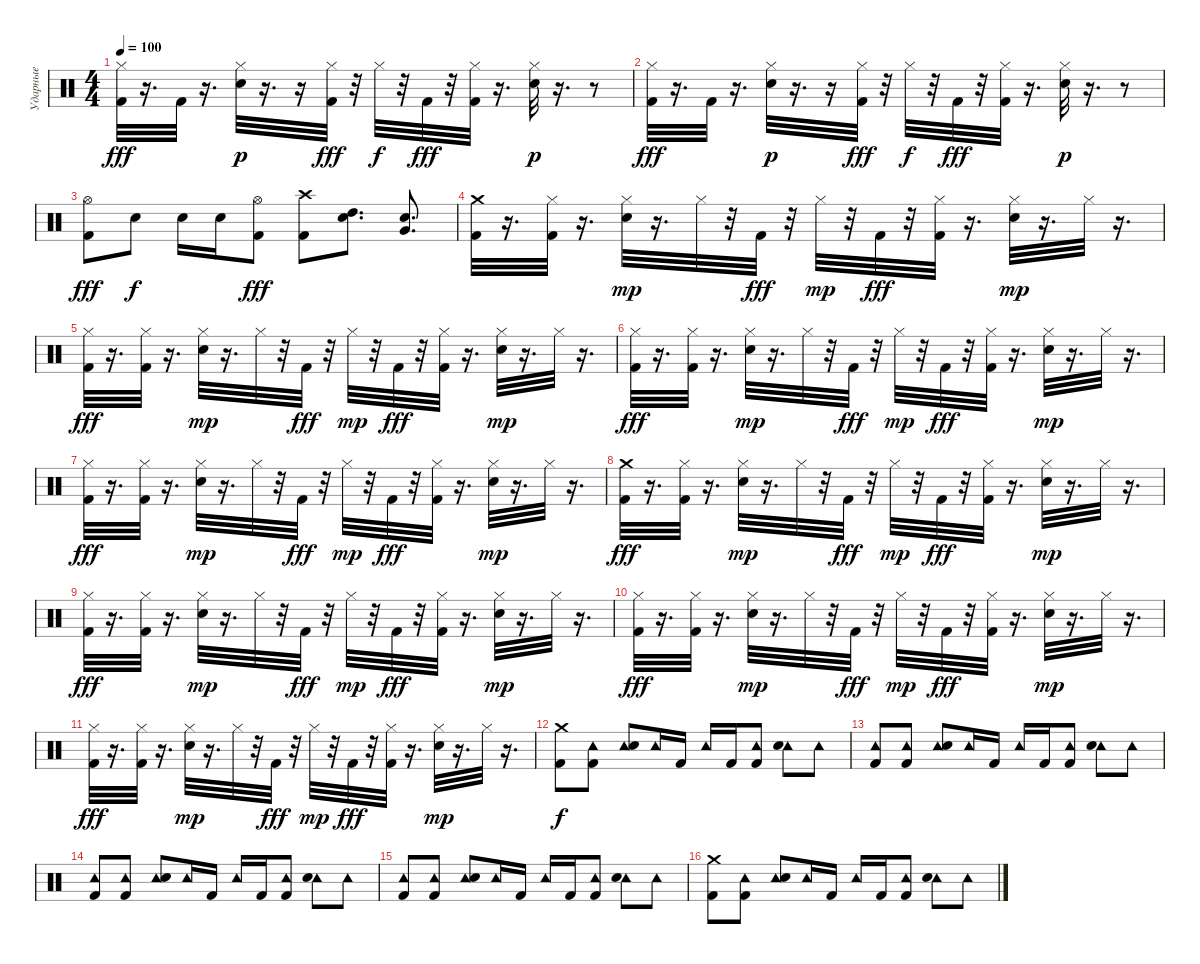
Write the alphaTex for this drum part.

\track ("Ударные" "Ударные") {instrument percussion}
\staff {score}
\articulation defaults
\ts (4 4)
\tempo 100
\clef neutral
\ks c
("Hi-Hat (closed)" "Kick (hit) 2").32{dy fff} r.16{d} "Kick (hit) 2".32 r.16{d} ("Hi-Hat (closed)" "Electric Snare (hit)").32{dy p} r.16{d} r.16 ("Hi-Hat (closed)" "Kick (hit) 2").32{dy fff} r.32 "Hi-Hat (closed)".32{dy f} r.32 "Kick (hit) 2".32{dy fff} r.32 ("Hi-Hat (closed)" "Kick (hit) 2").32 r.16{d} ("Hi-Hat (closed)" "Electric Snare (hit)").32{dy p} r.16{d} r.8 |
("Hi-Hat (closed)" "Kick (hit) 2").32{dy fff} r.16{d} "Kick (hit) 2".32 r.16{d} ("Hi-Hat (closed)" "Electric Snare (hit)").32{dy p} r.16{d} r.16 ("Hi-Hat (closed)" "Kick (hit) 2").32{dy fff} r.32 "Hi-Hat (closed)".32{dy f} r.32 "Kick (hit) 2".32{dy fff} r.32 ("Hi-Hat (closed)" "Kick (hit) 2").32 r.16{d} ("Hi-Hat (closed)" "Electric Snare (hit)").32{dy p} r.16{d} r.8 |
("Hi-Hat (open)" "Kick (hit) 2").8{dy fff} "Electric Snare (hit)".8{dy f} "Electric Snare (hit)".16 "Electric Snare (hit)".16 ("Hi-Hat (open)" "Kick (hit) 2").8{dy fff} ("Crash high (hit)" "Kick (hit) 2").8 ("Electric Snare (hit)" "High Tom (hit)").8{d} ("Electric Snare (hit)" "Very Low Tom (hit)").8{d} |
("Crash medium (hit)" "Kick (hit) 2").32 r.16{d} ("Hi-Hat (closed)" "Kick (hit) 2").32 r.16{d} ("Hi-Hat (closed)" "Electric Snare (hit)").32{dy mp} r.16{d} "Hi-Hat (closed)".32 r.32 "Kick (hit) 2".32{dy fff} r.32 "Hi-Hat (closed)".32{dy mp} r.32 "Kick (hit) 2".32{dy fff} r.32 ("Hi-Hat (closed)" "Kick (hit) 2").32 r.16{d} ("Hi-Hat (closed)" "Electric Snare (hit)").32{dy mp} r.16{d} "Hi-Hat (closed)".32 r.16{d} |
("Hi-Hat (closed)" "Kick (hit) 2").32{dy fff} r.16{d} ("Hi-Hat (closed)" "Kick (hit) 2").32 r.16{d} ("Hi-Hat (closed)" "Electric Snare (hit)").32{dy mp} r.16{d} "Hi-Hat (closed)".32 r.32 "Kick (hit) 2".32{dy fff} r.32 "Hi-Hat (closed)".32{dy mp} r.32 "Kick (hit) 2".32{dy fff} r.32 ("Hi-Hat (closed)" "Kick (hit) 2").32 r.16{d} ("Hi-Hat (closed)" "Electric Snare (hit)").32{dy mp} r.16{d} "Hi-Hat (closed)".32 r.16{d} |
("Hi-Hat (closed)" "Kick (hit) 2").32{dy fff} r.16{d} ("Hi-Hat (closed)" "Kick (hit) 2").32 r.16{d} ("Hi-Hat (closed)" "Electric Snare (hit)").32{dy mp} r.16{d} "Hi-Hat (closed)".32 r.32 "Kick (hit) 2".32{dy fff} r.32 "Hi-Hat (closed)".32{dy mp} r.32 "Kick (hit) 2".32{dy fff} r.32 ("Hi-Hat (closed)" "Kick (hit) 2").32 r.16{d} ("Hi-Hat (closed)" "Electric Snare (hit)").32{dy mp} r.16{d} "Hi-Hat (closed)".32 r.16{d} |
("Hi-Hat (closed)" "Kick (hit) 2").32{dy fff} r.16{d} ("Hi-Hat (closed)" "Kick (hit) 2").32 r.16{d} ("Hi-Hat (closed)" "Electric Snare (hit)").32{dy mp} r.16{d} "Hi-Hat (closed)".32 r.32 "Kick (hit) 2".32{dy fff} r.32 "Hi-Hat (closed)".32{dy mp} r.32 "Kick (hit) 2".32{dy fff} r.32 ("Hi-Hat (closed)" "Kick (hit) 2").32 r.16{d} ("Hi-Hat (closed)" "Electric Snare (hit)").32{dy mp} r.16{d} "Hi-Hat (closed)".32 r.16{d} |
("Crash medium (hit)" "Kick (hit) 2").32{dy fff} r.16{d} ("Hi-Hat (closed)" "Kick (hit) 2").32 r.16{d} ("Hi-Hat (closed)" "Electric Snare (hit)").32{dy mp} r.16{d} "Hi-Hat (closed)".32 r.32 "Kick (hit) 2".32{dy fff} r.32 "Hi-Hat (closed)".32{dy mp} r.32 "Kick (hit) 2".32{dy fff} r.32 ("Hi-Hat (closed)" "Kick (hit) 2").32 r.16{d} ("Hi-Hat (closed)" "Electric Snare (hit)").32{dy mp} r.16{d} "Hi-Hat (closed)".32 r.16{d} |
("Hi-Hat (closed)" "Kick (hit) 2").32{dy fff} r.16{d} ("Hi-Hat (closed)" "Kick (hit) 2").32 r.16{d} ("Hi-Hat (closed)" "Electric Snare (hit)").32{dy mp} r.16{d} "Hi-Hat (closed)".32 r.32 "Kick (hit) 2".32{dy fff} r.32 "Hi-Hat (closed)".32{dy mp} r.32 "Kick (hit) 2".32{dy fff} r.32 ("Hi-Hat (closed)" "Kick (hit) 2").32 r.16{d} ("Hi-Hat (closed)" "Electric Snare (hit)").32{dy mp} r.16{d} "Hi-Hat (closed)".32 r.16{d} |
("Hi-Hat (closed)" "Kick (hit) 2").32{dy fff} r.16{d} ("Hi-Hat (closed)" "Kick (hit) 2").32 r.16{d} ("Hi-Hat (closed)" "Electric Snare (hit)").32{dy mp} r.16{d} "Hi-Hat (closed)".32 r.32 "Kick (hit) 2".32{dy fff} r.32 "Hi-Hat (closed)".32{dy mp} r.32 "Kick (hit) 2".32{dy fff} r.32 ("Hi-Hat (closed)" "Kick (hit) 2").32 r.16{d} ("Hi-Hat (closed)" "Electric Snare (hit)").32{dy mp} r.16{d} "Hi-Hat (closed)".32 r.16{d} |
("Hi-Hat (closed)" "Kick (hit) 2").32{dy fff} r.16{d} ("Hi-Hat (closed)" "Kick (hit) 2").32 r.16{d} ("Hi-Hat (closed)" "Electric Snare (hit)").32{dy mp} r.16{d} "Hi-Hat (closed)".32 r.32 "Kick (hit) 2".32{dy fff} r.32 "Hi-Hat (closed)".32{dy mp} r.32 "Kick (hit) 2".32{dy fff} r.32 ("Hi-Hat (closed)" "Kick (hit) 2").32 r.16{d} ("Hi-Hat (closed)" "Electric Snare (hit)").32{dy mp} r.16{d} "Hi-Hat (closed)".32 r.16{d} |
("Crash medium (hit)" "Kick (hit) 2").8{dy f} ("Tambourine (hit)" "Kick (hit) 2").8 ("Tambourine (hit)" "Electric Snare (hit)").8 "Tambourine (hit)".16 "Kick (hit) 2".16 "Tambourine (hit)".16 "Kick (hit) 2".16 ("Tambourine (hit)" "Kick (hit) 2").8 ("Tambourine (hit)" "Electric Snare (hit)").8 "Tambourine (hit)".8 |
("Tambourine (hit)" "Kick (hit) 2").8 ("Tambourine (hit)" "Kick (hit) 2").8 ("Tambourine (hit)" "Electric Snare (hit)").8 "Tambourine (hit)".16 "Kick (hit) 2".16 "Tambourine (hit)".16 "Kick (hit) 2".16 ("Tambourine (hit)" "Kick (hit) 2").8 ("Tambourine (hit)" "Electric Snare (hit)").8 "Tambourine (hit)".8 |
("Tambourine (hit)" "Kick (hit) 2").8 ("Tambourine (hit)" "Kick (hit) 2").8 ("Tambourine (hit)" "Electric Snare (hit)").8 "Tambourine (hit)".16 "Kick (hit) 2".16 "Tambourine (hit)".16 "Kick (hit) 2".16 ("Tambourine (hit)" "Kick (hit) 2").8 ("Tambourine (hit)" "Electric Snare (hit)").8 "Tambourine (hit)".8 |
("Tambourine (hit)" "Kick (hit) 2").8 ("Tambourine (hit)" "Kick (hit) 2").8 ("Tambourine (hit)" "Electric Snare (hit)").8 "Tambourine (hit)".16 "Kick (hit) 2".16 "Tambourine (hit)".16 "Kick (hit) 2".16 ("Tambourine (hit)" "Kick (hit) 2").8 ("Tambourine (hit)" "Electric Snare (hit)").8 "Tambourine (hit)".8 |
("Crash medium (hit)" "Kick (hit) 2").8 ("Tambourine (hit)" "Kick (hit) 2").8 ("Tambourine (hit)" "Electric Snare (hit)").8 "Tambourine (hit)".16 "Kick (hit) 2".16 "Tambourine (hit)".16 "Kick (hit) 2".16 ("Tambourine (hit)" "Kick (hit) 2").8 ("Tambourine (hit)" "Electric Snare (hit)").8 "Tambourine (hit)".8
